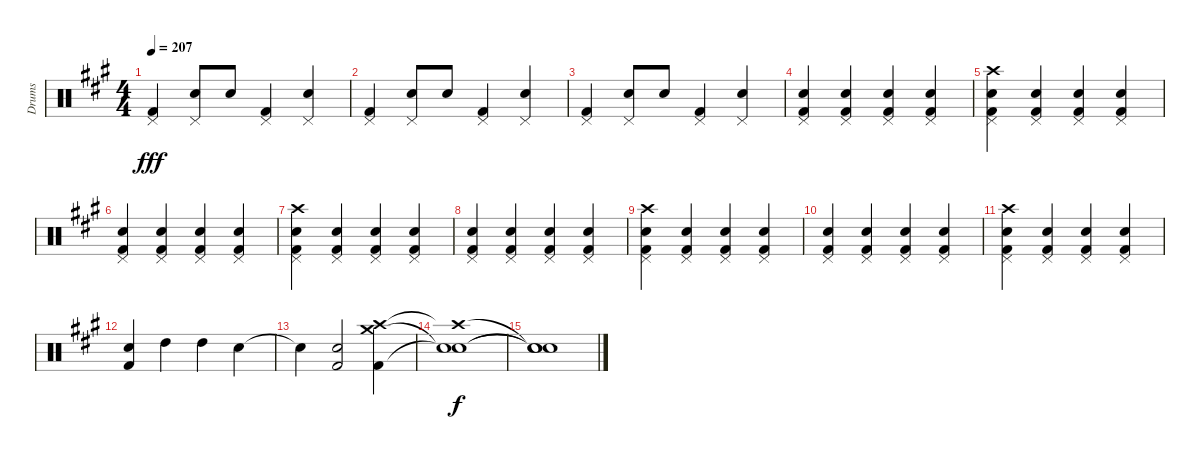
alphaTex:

\track ("Drums" "Drums") {instrument percussion}
\staff {score}
\articulation defaults
\ts (4 4)
\tempo 207
\clef neutral
\ks a
("Pedal Hi-Hat (hit)" "Kick (hit) 2").4{dy fff} ("Pedal Hi-Hat (hit)" "Snare (hit) 2").8 "Snare (hit) 2".8 ("Pedal Hi-Hat (hit)" "Kick (hit) 2").4 ("Pedal Hi-Hat (hit)" "Snare (hit) 2").4 |
("Pedal Hi-Hat (hit)" "Kick (hit) 2").4 ("Pedal Hi-Hat (hit)" "Snare (hit) 2").8 "Snare (hit) 2".8 ("Pedal Hi-Hat (hit)" "Kick (hit) 2").4 ("Pedal Hi-Hat (hit)" "Snare (hit) 2").4 |
("Pedal Hi-Hat (hit)" "Kick (hit) 2").4 ("Pedal Hi-Hat (hit)" "Snare (hit) 2").8 "Snare (hit) 2".8 ("Pedal Hi-Hat (hit)" "Kick (hit) 2").4 ("Pedal Hi-Hat (hit)" "Snare (hit) 2").4 |
("Pedal Hi-Hat (hit)" "Snare (hit) 2" "Kick (hit) 2").4 ("Pedal Hi-Hat (hit)" "Snare (hit) 2" "Kick (hit) 2").4 ("Pedal Hi-Hat (hit)" "Snare (hit) 2" "Kick (hit) 2").4 ("Pedal Hi-Hat (hit)" "Snare (hit) 2" "Kick (hit) 2").4 |
("Crash high (hit)" "Pedal Hi-Hat (hit)" "Snare (hit) 2" "Kick (hit) 2").4 ("Pedal Hi-Hat (hit)" "Snare (hit) 2" "Kick (hit) 2").4 ("Pedal Hi-Hat (hit)" "Snare (hit) 2" "Kick (hit) 2").4 ("Pedal Hi-Hat (hit)" "Snare (hit) 2" "Kick (hit) 2").4 |
("Pedal Hi-Hat (hit)" "Snare (hit) 2" "Kick (hit) 2").4 ("Pedal Hi-Hat (hit)" "Snare (hit) 2" "Kick (hit) 2").4 ("Pedal Hi-Hat (hit)" "Snare (hit) 2" "Kick (hit) 2").4 ("Pedal Hi-Hat (hit)" "Snare (hit) 2" "Kick (hit) 2").4 |
("Crash high (hit)" "Pedal Hi-Hat (hit)" "Snare (hit) 2" "Kick (hit) 2").4 ("Pedal Hi-Hat (hit)" "Snare (hit) 2" "Kick (hit) 2").4 ("Pedal Hi-Hat (hit)" "Snare (hit) 2" "Kick (hit) 2").4 ("Pedal Hi-Hat (hit)" "Snare (hit) 2" "Kick (hit) 2").4 |
("Pedal Hi-Hat (hit)" "Snare (hit) 2" "Kick (hit) 2").4 ("Pedal Hi-Hat (hit)" "Snare (hit) 2" "Kick (hit) 2").4 ("Pedal Hi-Hat (hit)" "Snare (hit) 2" "Kick (hit) 2").4 ("Pedal Hi-Hat (hit)" "Snare (hit) 2" "Kick (hit) 2").4 |
("Crash high (hit)" "Pedal Hi-Hat (hit)" "Snare (hit) 2" "Kick (hit) 2").4 ("Pedal Hi-Hat (hit)" "Snare (hit) 2" "Kick (hit) 2").4 ("Pedal Hi-Hat (hit)" "Snare (hit) 2" "Kick (hit) 2").4 ("Pedal Hi-Hat (hit)" "Snare (hit) 2" "Kick (hit) 2").4 |
("Pedal Hi-Hat (hit)" "Snare (hit) 2" "Kick (hit) 2").4 ("Pedal Hi-Hat (hit)" "Snare (hit) 2" "Kick (hit) 2").4 ("Pedal Hi-Hat (hit)" "Snare (hit) 2" "Kick (hit) 2").4 ("Pedal Hi-Hat (hit)" "Snare (hit) 2" "Kick (hit) 2").4 |
("Crash high (hit)" "Pedal Hi-Hat (hit)" "Snare (hit) 2" "Kick (hit) 2").4 ("Pedal Hi-Hat (hit)" "Snare (hit) 2" "Kick (hit) 2").4 ("Pedal Hi-Hat (hit)" "Snare (hit) 2" "Kick (hit) 2").4 ("Pedal Hi-Hat (hit)" "Snare (hit) 2" "Kick (hit) 2").4 |
("Snare (hit) 2" "Kick (hit) 2").4 "High Tom (hit)".4 "High Tom (hit)".4 "Snare (hit) 2".4 |
"Snare (hit) 2"{t}.4 ("Snare (hit) 2" "Kick (hit) 2").2 ("Crash high (hit)" "Crash medium (hit)" "Kick (hit) 2").4 |
("Crash high (hit)"{t} "Snare (hit)"{t} "Snare (hit)"{t}).1{dy f} |
("Snare (hit)"{t} "Snare (hit)"{t} "Snare (hit)"{t}).1
